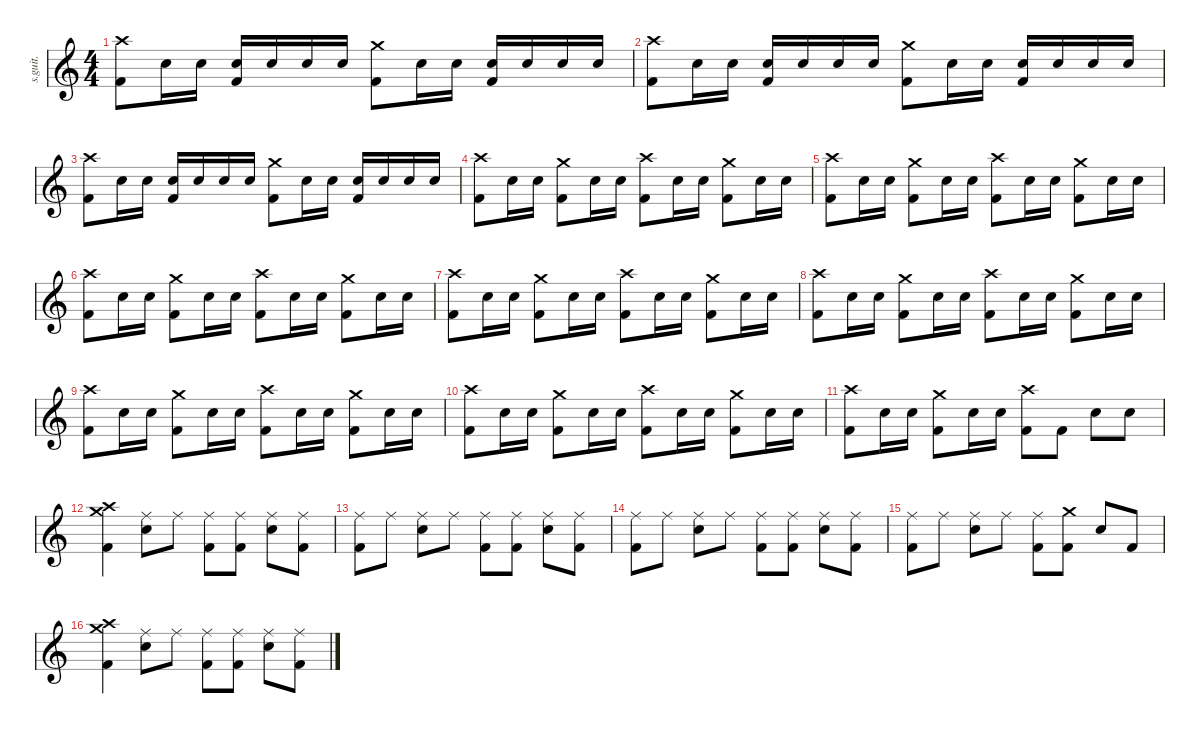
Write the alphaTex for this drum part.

\defaultSystemsLayout 4
\hideDynamics
\bracketExtendMode nobrackets
\track ("Bob Burns (Drums)" "s.guit.") {instrument percussion}
\staff {score}
\articulation defaults
\ts (4 4)
\tempo (150 hide)
\clef g2
\ks c
("Crash high (hit)" "Kick (hit) 2").8{lyrics (0 "") lyrics (1 "") lyrics (2 "") lyrics (3 "") lyrics (4 "") dy f} "Electric Snare (hit)".16{lyrics (0 "") lyrics (1 "") lyrics (2 "") lyrics (3 "") lyrics (4 "")} "Electric Snare (hit)".16{lyrics (0 "") lyrics (1 "") lyrics (2 "") lyrics (3 "") lyrics (4 "")} ("Electric Snare (hit)" "Kick (hit) 2").16{lyrics (0 "") lyrics (1 "") lyrics (2 "") lyrics (3 "") lyrics (4 "")} "Electric Snare (hit)".16{lyrics (0 "") lyrics (1 "") lyrics (2 "") lyrics (3 "") lyrics (4 "")} "Electric Snare (hit)".16{lyrics (0 "") lyrics (1 "") lyrics (2 "") lyrics (3 "") lyrics (4 "")} "Electric Snare (hit)".16{lyrics (0 "") lyrics (1 "") lyrics (2 "") lyrics (3 "") lyrics (4 "")} ("Crash medium (hit)" "Kick (hit) 2").8{lyrics (0 "") lyrics (1 "") lyrics (2 "") lyrics (3 "") lyrics (4 "")} "Electric Snare (hit)".16{lyrics (0 "") lyrics (1 "") lyrics (2 "") lyrics (3 "") lyrics (4 "")} "Electric Snare (hit)".16{lyrics (0 "") lyrics (1 "") lyrics (2 "") lyrics (3 "") lyrics (4 "")} ("Electric Snare (hit)" "Kick (hit) 2").16{lyrics (0 "") lyrics (1 "") lyrics (2 "") lyrics (3 "") lyrics (4 "")} "Electric Snare (hit)".16{lyrics (0 "") lyrics (1 "") lyrics (2 "") lyrics (3 "") lyrics (4 "")} "Electric Snare (hit)".16{lyrics (0 "") lyrics (1 "") lyrics (2 "") lyrics (3 "") lyrics (4 "")} "Electric Snare (hit)".16{lyrics (0 "") lyrics (1 "") lyrics (2 "") lyrics (3 "") lyrics (4 "")} |
("Crash high (hit)" "Kick (hit) 2").8{lyrics (0 "") lyrics (1 "") lyrics (2 "") lyrics (3 "") lyrics (4 "")} "Electric Snare (hit)".16{lyrics (0 "") lyrics (1 "") lyrics (2 "") lyrics (3 "") lyrics (4 "")} "Electric Snare (hit)".16{lyrics (0 "") lyrics (1 "") lyrics (2 "") lyrics (3 "") lyrics (4 "")} ("Electric Snare (hit)" "Kick (hit) 2").16{lyrics (0 "") lyrics (1 "") lyrics (2 "") lyrics (3 "") lyrics (4 "")} "Electric Snare (hit)".16{lyrics (0 "") lyrics (1 "") lyrics (2 "") lyrics (3 "") lyrics (4 "")} "Electric Snare (hit)".16{lyrics (0 "") lyrics (1 "") lyrics (2 "") lyrics (3 "") lyrics (4 "")} "Electric Snare (hit)".16{lyrics (0 "") lyrics (1 "") lyrics (2 "") lyrics (3 "") lyrics (4 "")} ("Crash medium (hit)" "Kick (hit) 2").8{lyrics (0 "") lyrics (1 "") lyrics (2 "") lyrics (3 "") lyrics (4 "")} "Electric Snare (hit)".16{lyrics (0 "") lyrics (1 "") lyrics (2 "") lyrics (3 "") lyrics (4 "")} "Electric Snare (hit)".16{lyrics (0 "") lyrics (1 "") lyrics (2 "") lyrics (3 "") lyrics (4 "")} ("Electric Snare (hit)" "Kick (hit) 2").16{lyrics (0 "") lyrics (1 "") lyrics (2 "") lyrics (3 "") lyrics (4 "")} "Electric Snare (hit)".16{lyrics (0 "") lyrics (1 "") lyrics (2 "") lyrics (3 "") lyrics (4 "")} "Electric Snare (hit)".16{lyrics (0 "") lyrics (1 "") lyrics (2 "") lyrics (3 "") lyrics (4 "")} "Electric Snare (hit)".16{lyrics (0 "") lyrics (1 "") lyrics (2 "") lyrics (3 "") lyrics (4 "")} |
("Crash high (hit)" "Kick (hit) 2").8{lyrics (0 "") lyrics (1 "") lyrics (2 "") lyrics (3 "") lyrics (4 "")} "Electric Snare (hit)".16{lyrics (0 "") lyrics (1 "") lyrics (2 "") lyrics (3 "") lyrics (4 "")} "Electric Snare (hit)".16{lyrics (0 "") lyrics (1 "") lyrics (2 "") lyrics (3 "") lyrics (4 "")} ("Electric Snare (hit)" "Kick (hit) 2").16{lyrics (0 "") lyrics (1 "") lyrics (2 "") lyrics (3 "") lyrics (4 "")} "Electric Snare (hit)".16{lyrics (0 "") lyrics (1 "") lyrics (2 "") lyrics (3 "") lyrics (4 "")} "Electric Snare (hit)".16{lyrics (0 "") lyrics (1 "") lyrics (2 "") lyrics (3 "") lyrics (4 "")} "Electric Snare (hit)".16{lyrics (0 "") lyrics (1 "") lyrics (2 "") lyrics (3 "") lyrics (4 "")} ("Crash medium (hit)" "Kick (hit) 2").8{lyrics (0 "") lyrics (1 "") lyrics (2 "") lyrics (3 "") lyrics (4 "")} "Electric Snare (hit)".16{lyrics (0 "") lyrics (1 "") lyrics (2 "") lyrics (3 "") lyrics (4 "")} "Electric Snare (hit)".16{lyrics (0 "") lyrics (1 "") lyrics (2 "") lyrics (3 "") lyrics (4 "")} ("Electric Snare (hit)" "Kick (hit) 2").16{lyrics (0 "") lyrics (1 "") lyrics (2 "") lyrics (3 "") lyrics (4 "")} "Electric Snare (hit)".16{lyrics (0 "") lyrics (1 "") lyrics (2 "") lyrics (3 "") lyrics (4 "")} "Electric Snare (hit)".16{lyrics (0 "") lyrics (1 "") lyrics (2 "") lyrics (3 "") lyrics (4 "")} "Electric Snare (hit)".16{lyrics (0 "") lyrics (1 "") lyrics (2 "") lyrics (3 "") lyrics (4 "")} |
("Crash high (hit)" "Kick (hit) 2").8{lyrics (0 "") lyrics (1 "") lyrics (2 "") lyrics (3 "") lyrics (4 "")} "Electric Snare (hit)".16{lyrics (0 "") lyrics (1 "") lyrics (2 "") lyrics (3 "") lyrics (4 "")} "Electric Snare (hit)".16{lyrics (0 "") lyrics (1 "") lyrics (2 "") lyrics (3 "") lyrics (4 "")} ("Crash medium (hit)" "Kick (hit) 2").8{lyrics (0 "") lyrics (1 "") lyrics (2 "") lyrics (3 "") lyrics (4 "")} "Electric Snare (hit)".16{lyrics (0 "") lyrics (1 "") lyrics (2 "") lyrics (3 "") lyrics (4 "")} "Electric Snare (hit)".16{lyrics (0 "") lyrics (1 "") lyrics (2 "") lyrics (3 "") lyrics (4 "")} ("Crash high (hit)" "Kick (hit) 2").8{lyrics (0 "") lyrics (1 "") lyrics (2 "") lyrics (3 "") lyrics (4 "")} "Electric Snare (hit)".16{lyrics (0 "") lyrics (1 "") lyrics (2 "") lyrics (3 "") lyrics (4 "")} "Electric Snare (hit)".16{lyrics (0 "") lyrics (1 "") lyrics (2 "") lyrics (3 "") lyrics (4 "")} ("Crash medium (hit)" "Kick (hit) 2").8{lyrics (0 "") lyrics (1 "") lyrics (2 "") lyrics (3 "") lyrics (4 "")} "Electric Snare (hit)".16{lyrics (0 "") lyrics (1 "") lyrics (2 "") lyrics (3 "") lyrics (4 "")} "Electric Snare (hit)".16{lyrics (0 "") lyrics (1 "") lyrics (2 "") lyrics (3 "") lyrics (4 "")} |
("Crash high (hit)" "Kick (hit) 2").8{lyrics (0 "") lyrics (1 "") lyrics (2 "") lyrics (3 "") lyrics (4 "")} "Electric Snare (hit)".16{lyrics (0 "") lyrics (1 "") lyrics (2 "") lyrics (3 "") lyrics (4 "")} "Electric Snare (hit)".16{lyrics (0 "") lyrics (1 "") lyrics (2 "") lyrics (3 "") lyrics (4 "")} ("Crash medium (hit)" "Kick (hit) 2").8{lyrics (0 "") lyrics (1 "") lyrics (2 "") lyrics (3 "") lyrics (4 "")} "Electric Snare (hit)".16{lyrics (0 "") lyrics (1 "") lyrics (2 "") lyrics (3 "") lyrics (4 "")} "Electric Snare (hit)".16{lyrics (0 "") lyrics (1 "") lyrics (2 "") lyrics (3 "") lyrics (4 "")} ("Crash high (hit)" "Kick (hit) 2").8{lyrics (0 "") lyrics (1 "") lyrics (2 "") lyrics (3 "") lyrics (4 "")} "Electric Snare (hit)".16{lyrics (0 "") lyrics (1 "") lyrics (2 "") lyrics (3 "") lyrics (4 "")} "Electric Snare (hit)".16{lyrics (0 "") lyrics (1 "") lyrics (2 "") lyrics (3 "") lyrics (4 "")} ("Crash medium (hit)" "Kick (hit) 2").8{lyrics (0 "") lyrics (1 "") lyrics (2 "") lyrics (3 "") lyrics (4 "")} "Electric Snare (hit)".16{lyrics (0 "") lyrics (1 "") lyrics (2 "") lyrics (3 "") lyrics (4 "")} "Electric Snare (hit)".16{lyrics (0 "") lyrics (1 "") lyrics (2 "") lyrics (3 "") lyrics (4 "")} |
("Crash high (hit)" "Kick (hit) 2").8{lyrics (0 "") lyrics (1 "") lyrics (2 "") lyrics (3 "") lyrics (4 "")} "Electric Snare (hit)".16{lyrics (0 "") lyrics (1 "") lyrics (2 "") lyrics (3 "") lyrics (4 "")} "Electric Snare (hit)".16{lyrics (0 "") lyrics (1 "") lyrics (2 "") lyrics (3 "") lyrics (4 "")} ("Crash medium (hit)" "Kick (hit) 2").8{lyrics (0 "") lyrics (1 "") lyrics (2 "") lyrics (3 "") lyrics (4 "")} "Electric Snare (hit)".16{lyrics (0 "") lyrics (1 "") lyrics (2 "") lyrics (3 "") lyrics (4 "")} "Electric Snare (hit)".16{lyrics (0 "") lyrics (1 "") lyrics (2 "") lyrics (3 "") lyrics (4 "")} ("Crash high (hit)" "Kick (hit) 2").8{lyrics (0 "") lyrics (1 "") lyrics (2 "") lyrics (3 "") lyrics (4 "")} "Electric Snare (hit)".16{lyrics (0 "") lyrics (1 "") lyrics (2 "") lyrics (3 "") lyrics (4 "")} "Electric Snare (hit)".16{lyrics (0 "") lyrics (1 "") lyrics (2 "") lyrics (3 "") lyrics (4 "")} ("Crash medium (hit)" "Kick (hit) 2").8{lyrics (0 "") lyrics (1 "") lyrics (2 "") lyrics (3 "") lyrics (4 "")} "Electric Snare (hit)".16{lyrics (0 "") lyrics (1 "") lyrics (2 "") lyrics (3 "") lyrics (4 "")} "Electric Snare (hit)".16{lyrics (0 "") lyrics (1 "") lyrics (2 "") lyrics (3 "") lyrics (4 "")} |
("Crash high (hit)" "Kick (hit) 2").8{lyrics (0 "") lyrics (1 "") lyrics (2 "") lyrics (3 "") lyrics (4 "")} "Electric Snare (hit)".16{lyrics (0 "") lyrics (1 "") lyrics (2 "") lyrics (3 "") lyrics (4 "")} "Electric Snare (hit)".16{lyrics (0 "") lyrics (1 "") lyrics (2 "") lyrics (3 "") lyrics (4 "")} ("Crash medium (hit)" "Kick (hit) 2").8{lyrics (0 "") lyrics (1 "") lyrics (2 "") lyrics (3 "") lyrics (4 "")} "Electric Snare (hit)".16{lyrics (0 "") lyrics (1 "") lyrics (2 "") lyrics (3 "") lyrics (4 "")} "Electric Snare (hit)".16{lyrics (0 "") lyrics (1 "") lyrics (2 "") lyrics (3 "") lyrics (4 "")} ("Crash high (hit)" "Kick (hit) 2").8{lyrics (0 "") lyrics (1 "") lyrics (2 "") lyrics (3 "") lyrics (4 "")} "Electric Snare (hit)".16{lyrics (0 "") lyrics (1 "") lyrics (2 "") lyrics (3 "") lyrics (4 "")} "Electric Snare (hit)".16{lyrics (0 "") lyrics (1 "") lyrics (2 "") lyrics (3 "") lyrics (4 "")} ("Crash medium (hit)" "Kick (hit) 2").8{lyrics (0 "") lyrics (1 "") lyrics (2 "") lyrics (3 "") lyrics (4 "")} "Electric Snare (hit)".16{lyrics (0 "") lyrics (1 "") lyrics (2 "") lyrics (3 "") lyrics (4 "")} "Electric Snare (hit)".16{lyrics (0 "") lyrics (1 "") lyrics (2 "") lyrics (3 "") lyrics (4 "")} |
("Crash high (hit)" "Kick (hit) 2").8{lyrics (0 "") lyrics (1 "") lyrics (2 "") lyrics (3 "") lyrics (4 "")} "Electric Snare (hit)".16{lyrics (0 "") lyrics (1 "") lyrics (2 "") lyrics (3 "") lyrics (4 "")} "Electric Snare (hit)".16{lyrics (0 "") lyrics (1 "") lyrics (2 "") lyrics (3 "") lyrics (4 "")} ("Crash medium (hit)" "Kick (hit) 2").8{lyrics (0 "") lyrics (1 "") lyrics (2 "") lyrics (3 "") lyrics (4 "")} "Electric Snare (hit)".16{lyrics (0 "") lyrics (1 "") lyrics (2 "") lyrics (3 "") lyrics (4 "")} "Electric Snare (hit)".16{lyrics (0 "") lyrics (1 "") lyrics (2 "") lyrics (3 "") lyrics (4 "")} ("Crash high (hit)" "Kick (hit) 2").8{lyrics (0 "") lyrics (1 "") lyrics (2 "") lyrics (3 "") lyrics (4 "")} "Electric Snare (hit)".16{lyrics (0 "") lyrics (1 "") lyrics (2 "") lyrics (3 "") lyrics (4 "")} "Electric Snare (hit)".16{lyrics (0 "") lyrics (1 "") lyrics (2 "") lyrics (3 "") lyrics (4 "")} ("Crash medium (hit)" "Kick (hit) 2").8{lyrics (0 "") lyrics (1 "") lyrics (2 "") lyrics (3 "") lyrics (4 "")} "Electric Snare (hit)".16{lyrics (0 "") lyrics (1 "") lyrics (2 "") lyrics (3 "") lyrics (4 "")} "Electric Snare (hit)".16{lyrics (0 "") lyrics (1 "") lyrics (2 "") lyrics (3 "") lyrics (4 "")} |
("Crash high (hit)" "Kick (hit) 2").8{lyrics (0 "") lyrics (1 "") lyrics (2 "") lyrics (3 "") lyrics (4 "")} "Electric Snare (hit)".16{lyrics (0 "") lyrics (1 "") lyrics (2 "") lyrics (3 "") lyrics (4 "")} "Electric Snare (hit)".16{lyrics (0 "") lyrics (1 "") lyrics (2 "") lyrics (3 "") lyrics (4 "")} ("Crash medium (hit)" "Kick (hit) 2").8{lyrics (0 "") lyrics (1 "") lyrics (2 "") lyrics (3 "") lyrics (4 "")} "Electric Snare (hit)".16{lyrics (0 "") lyrics (1 "") lyrics (2 "") lyrics (3 "") lyrics (4 "")} "Electric Snare (hit)".16{lyrics (0 "") lyrics (1 "") lyrics (2 "") lyrics (3 "") lyrics (4 "")} ("Crash high (hit)" "Kick (hit) 2").8{lyrics (0 "") lyrics (1 "") lyrics (2 "") lyrics (3 "") lyrics (4 "")} "Electric Snare (hit)".16{lyrics (0 "") lyrics (1 "") lyrics (2 "") lyrics (3 "") lyrics (4 "")} "Electric Snare (hit)".16{lyrics (0 "") lyrics (1 "") lyrics (2 "") lyrics (3 "") lyrics (4 "")} ("Crash medium (hit)" "Kick (hit) 2").8{lyrics (0 "") lyrics (1 "") lyrics (2 "") lyrics (3 "") lyrics (4 "")} "Electric Snare (hit)".16{lyrics (0 "") lyrics (1 "") lyrics (2 "") lyrics (3 "") lyrics (4 "")} "Electric Snare (hit)".16{lyrics (0 "") lyrics (1 "") lyrics (2 "") lyrics (3 "") lyrics (4 "")} |
("Crash high (hit)" "Kick (hit) 2").8{lyrics (0 "") lyrics (1 "") lyrics (2 "") lyrics (3 "") lyrics (4 "")} "Electric Snare (hit)".16{lyrics (0 "") lyrics (1 "") lyrics (2 "") lyrics (3 "") lyrics (4 "")} "Electric Snare (hit)".16{lyrics (0 "") lyrics (1 "") lyrics (2 "") lyrics (3 "") lyrics (4 "")} ("Crash medium (hit)" "Kick (hit) 2").8{lyrics (0 "") lyrics (1 "") lyrics (2 "") lyrics (3 "") lyrics (4 "")} "Electric Snare (hit)".16{lyrics (0 "") lyrics (1 "") lyrics (2 "") lyrics (3 "") lyrics (4 "")} "Electric Snare (hit)".16{lyrics (0 "") lyrics (1 "") lyrics (2 "") lyrics (3 "") lyrics (4 "")} ("Crash high (hit)" "Kick (hit) 2").8{lyrics (0 "") lyrics (1 "") lyrics (2 "") lyrics (3 "") lyrics (4 "")} "Electric Snare (hit)".16{lyrics (0 "") lyrics (1 "") lyrics (2 "") lyrics (3 "") lyrics (4 "")} "Electric Snare (hit)".16{lyrics (0 "") lyrics (1 "") lyrics (2 "") lyrics (3 "") lyrics (4 "")} ("Crash medium (hit)" "Kick (hit) 2").8{lyrics (0 "") lyrics (1 "") lyrics (2 "") lyrics (3 "") lyrics (4 "")} "Electric Snare (hit)".16{lyrics (0 "") lyrics (1 "") lyrics (2 "") lyrics (3 "") lyrics (4 "")} "Electric Snare (hit)".16{lyrics (0 "") lyrics (1 "") lyrics (2 "") lyrics (3 "") lyrics (4 "")} |
("Crash high (hit)" "Kick (hit) 2").8{lyrics (0 "") lyrics (1 "") lyrics (2 "") lyrics (3 "") lyrics (4 "")} "Electric Snare (hit)".16{lyrics (0 "") lyrics (1 "") lyrics (2 "") lyrics (3 "") lyrics (4 "")} "Electric Snare (hit)".16{lyrics (0 "") lyrics (1 "") lyrics (2 "") lyrics (3 "") lyrics (4 "")} ("Crash medium (hit)" "Kick (hit) 2").8{lyrics (0 "") lyrics (1 "") lyrics (2 "") lyrics (3 "") lyrics (4 "")} "Electric Snare (hit)".16{lyrics (0 "") lyrics (1 "") lyrics (2 "") lyrics (3 "") lyrics (4 "")} "Electric Snare (hit)".16{lyrics (0 "") lyrics (1 "") lyrics (2 "") lyrics (3 "") lyrics (4 "")} ("Crash high (hit)" "Kick (hit) 2").8{lyrics (0 "") lyrics (1 "") lyrics (2 "") lyrics (3 "") lyrics (4 "")} "Kick (hit) 2".8{lyrics (0 "") lyrics (1 "") lyrics (2 "") lyrics (3 "") lyrics (4 "")} "Electric Snare (hit)".8{lyrics (0 "") lyrics (1 "") lyrics (2 "") lyrics (3 "") lyrics (4 "")} "Electric Snare (hit)".8{lyrics (0 "") lyrics (1 "") lyrics (2 "") lyrics (3 "") lyrics (4 "")} |
("Crash high (hit)" "Crash medium (hit)" "Kick (hit) 2").4{lyrics (0 "") lyrics (1 "") lyrics (2 "") lyrics (3 "") lyrics (4 "")} ("Ride (middle)" "Electric Snare (hit)").8{lyrics (0 "") lyrics (1 "") lyrics (2 "") lyrics (3 "") lyrics (4 "")} "Ride (middle)".8{lyrics (0 "") lyrics (1 "") lyrics (2 "") lyrics (3 "") lyrics (4 "")} ("Ride (middle)" "Kick (hit) 2").8{lyrics (0 "") lyrics (1 "") lyrics (2 "") lyrics (3 "") lyrics (4 "")} ("Ride (middle)" "Kick (hit) 2").8{lyrics (0 "") lyrics (1 "") lyrics (2 "") lyrics (3 "") lyrics (4 "")} ("Ride (middle)" "Electric Snare (hit)").8{lyrics (0 "") lyrics (1 "") lyrics (2 "") lyrics (3 "") lyrics (4 "")} ("Ride (middle)" "Kick (hit) 2").8{lyrics (0 "") lyrics (1 "") lyrics (2 "") lyrics (3 "") lyrics (4 "")} |
("Ride (middle)" "Kick (hit) 2").8{lyrics (0 "") lyrics (1 "") lyrics (2 "") lyrics (3 "") lyrics (4 "")} "Ride (middle)".8{lyrics (0 "") lyrics (1 "") lyrics (2 "") lyrics (3 "") lyrics (4 "")} ("Ride (middle)" "Electric Snare (hit)").8{lyrics (0 "") lyrics (1 "") lyrics (2 "") lyrics (3 "") lyrics (4 "")} "Ride (middle)".8{lyrics (0 "") lyrics (1 "") lyrics (2 "") lyrics (3 "") lyrics (4 "")} ("Ride (middle)" "Kick (hit) 2").8{lyrics (0 "") lyrics (1 "") lyrics (2 "") lyrics (3 "") lyrics (4 "")} ("Ride (middle)" "Kick (hit) 2").8{lyrics (0 "") lyrics (1 "") lyrics (2 "") lyrics (3 "") lyrics (4 "")} ("Ride (middle)" "Electric Snare (hit)").8{lyrics (0 "") lyrics (1 "") lyrics (2 "") lyrics (3 "") lyrics (4 "")} ("Ride (middle)" "Kick (hit) 2").8{lyrics (0 "") lyrics (1 "") lyrics (2 "") lyrics (3 "") lyrics (4 "")} |
("Ride (middle)" "Kick (hit) 2").8{lyrics (0 "") lyrics (1 "") lyrics (2 "") lyrics (3 "") lyrics (4 "")} "Ride (middle)".8{lyrics (0 "") lyrics (1 "") lyrics (2 "") lyrics (3 "") lyrics (4 "")} ("Ride (middle)" "Electric Snare (hit)").8{lyrics (0 "") lyrics (1 "") lyrics (2 "") lyrics (3 "") lyrics (4 "")} "Ride (middle)".8{lyrics (0 "") lyrics (1 "") lyrics (2 "") lyrics (3 "") lyrics (4 "")} ("Ride (middle)" "Kick (hit) 2").8{lyrics (0 "") lyrics (1 "") lyrics (2 "") lyrics (3 "") lyrics (4 "")} ("Ride (middle)" "Kick (hit) 2").8{lyrics (0 "") lyrics (1 "") lyrics (2 "") lyrics (3 "") lyrics (4 "")} ("Ride (middle)" "Electric Snare (hit)").8{lyrics (0 "") lyrics (1 "") lyrics (2 "") lyrics (3 "") lyrics (4 "")} ("Ride (middle)" "Kick (hit) 2").8{lyrics (0 "") lyrics (1 "") lyrics (2 "") lyrics (3 "") lyrics (4 "")} |
("Ride (middle)" "Kick (hit) 2").8{lyrics (0 "") lyrics (1 "") lyrics (2 "") lyrics (3 "") lyrics (4 "")} "Ride (middle)".8{lyrics (0 "") lyrics (1 "") lyrics (2 "") lyrics (3 "") lyrics (4 "")} ("Ride (middle)" "Electric Snare (hit)").8{lyrics (0 "") lyrics (1 "") lyrics (2 "") lyrics (3 "") lyrics (4 "")} "Ride (middle)".8{lyrics (0 "") lyrics (1 "") lyrics (2 "") lyrics (3 "") lyrics (4 "")} ("Ride (middle)" "Kick (hit) 2").8{lyrics (0 "") lyrics (1 "") lyrics (2 "") lyrics (3 "") lyrics (4 "")} ("Crash medium (hit)" "Kick (hit) 2").8{lyrics (0 "") lyrics (1 "") lyrics (2 "") lyrics (3 "") lyrics (4 "")} "Electric Snare (hit)".8{lyrics (0 "") lyrics (1 "") lyrics (2 "") lyrics (3 "") lyrics (4 "")} "Kick (hit) 2".8{lyrics (0 "") lyrics (1 "") lyrics (2 "") lyrics (3 "") lyrics (4 "")} |
("Crash high (hit)" "Crash medium (hit)" "Kick (hit) 2").4{lyrics (0 "") lyrics (1 "") lyrics (2 "") lyrics (3 "") lyrics (4 "")} ("Ride (middle)" "Electric Snare (hit)").8{lyrics (0 "") lyrics (1 "") lyrics (2 "") lyrics (3 "") lyrics (4 "")} "Ride (middle)".8{lyrics (0 "") lyrics (1 "") lyrics (2 "") lyrics (3 "") lyrics (4 "")} ("Ride (middle)" "Kick (hit) 2").8{lyrics (0 "") lyrics (1 "") lyrics (2 "") lyrics (3 "") lyrics (4 "")} ("Ride (middle)" "Kick (hit) 2").8{lyrics (0 "") lyrics (1 "") lyrics (2 "") lyrics (3 "") lyrics (4 "")} ("Ride (middle)" "Electric Snare (hit)").8{lyrics (0 "") lyrics (1 "") lyrics (2 "") lyrics (3 "") lyrics (4 "")} ("Ride (middle)" "Kick (hit) 2").8{lyrics (0 "") lyrics (1 "") lyrics (2 "") lyrics (3 "") lyrics (4 "")}
